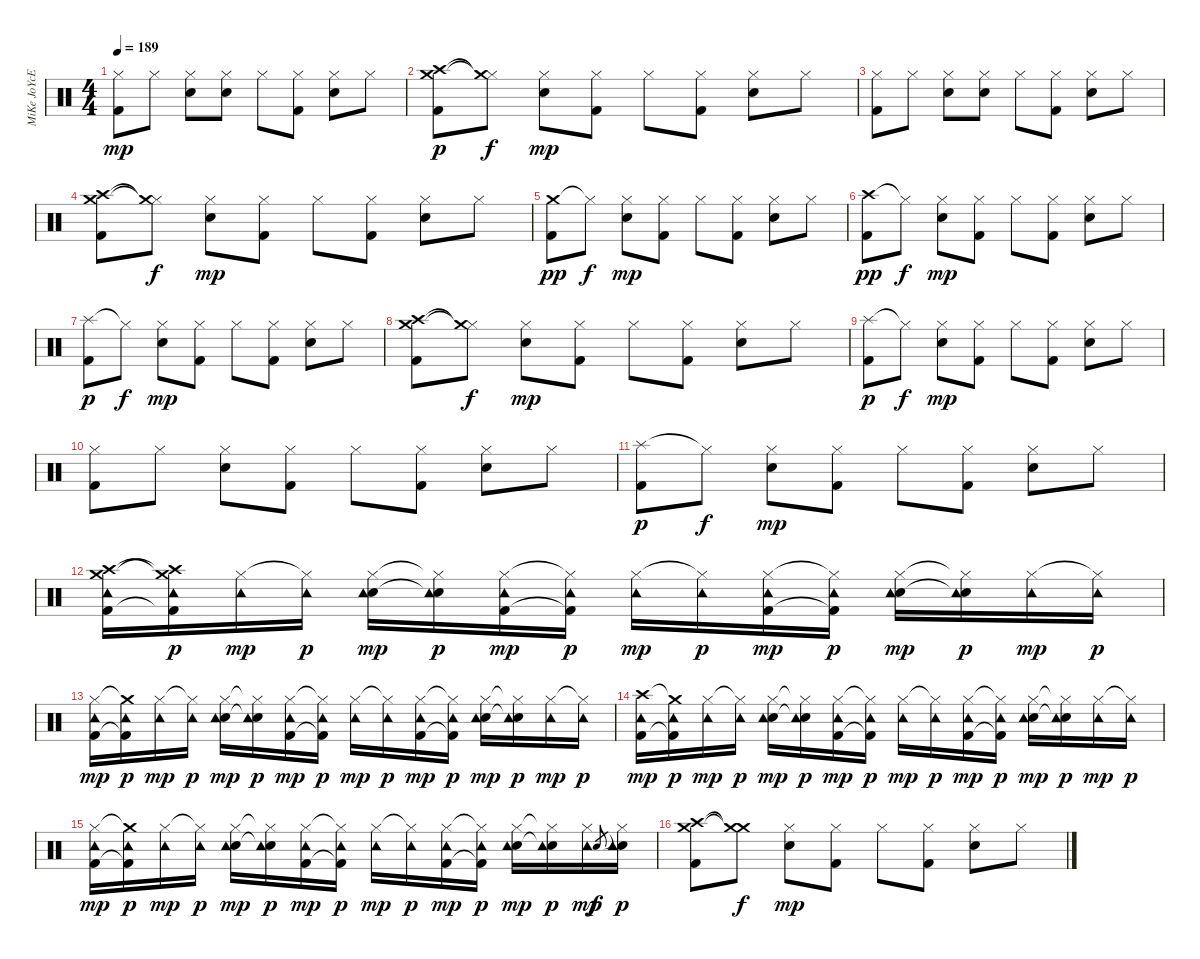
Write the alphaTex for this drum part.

\track ("MiKe JoYcE" "MiKe JoYcE") {instrument percussion}
\staff {score}
\articulation defaults
\ts (4 4)
\tempo 189
\clef neutral
\ks c
("Hi-Hat (closed)" "Kick (hit) 2").8{dy mp} "Hi-Hat (closed)".8 ("Hi-Hat (closed)" "Electric Snare (hit)").8 ("Hi-Hat (closed)" "Electric Snare (hit)").8 "Hi-Hat (closed)".8 ("Hi-Hat (closed)" "Kick (hit) 2").8 ("Hi-Hat (closed)" "Electric Snare (hit)").8 "Hi-Hat (closed)".8 |
("Crash high (hit)" "Crash medium (hit)" "Kick (hit) 2").8{dy p} ("Hi-Hat (closed)"{t} "Crash medium (hit)"{t}).8{dy f} ("Hi-Hat (closed)" "Electric Snare (hit)").8{dy mp} ("Hi-Hat (closed)" "Kick (hit) 2").8 "Hi-Hat (closed)".8 ("Hi-Hat (closed)" "Kick (hit) 2").8 ("Hi-Hat (closed)" "Electric Snare (hit)").8 "Hi-Hat (closed)".8 |
("Hi-Hat (closed)" "Kick (hit) 2").8 "Hi-Hat (closed)".8 ("Hi-Hat (closed)" "Electric Snare (hit)").8 ("Hi-Hat (closed)" "Electric Snare (hit)").8 "Hi-Hat (closed)".8 ("Hi-Hat (closed)" "Kick (hit) 2").8 ("Hi-Hat (closed)" "Electric Snare (hit)").8 "Hi-Hat (closed)".8 |
("Crash high (hit)" "Crash medium (hit)" "Kick (hit) 2").8 ("Hi-Hat (closed)"{t} "Crash medium (hit)"{t}).8{dy f} ("Hi-Hat (closed)" "Electric Snare (hit)").8{dy mp} ("Hi-Hat (closed)" "Kick (hit) 2").8 "Hi-Hat (closed)".8 ("Hi-Hat (closed)" "Kick (hit) 2").8 ("Hi-Hat (closed)" "Electric Snare (hit)").8 "Hi-Hat (closed)".8 |
("Crash medium (hit)" "Kick (hit) 2").8{dy pp} "Hi-Hat (closed)"{t}.8{dy f} ("Hi-Hat (closed)" "Electric Snare (hit)").8{dy mp} ("Hi-Hat (closed)" "Kick (hit) 2").8 "Hi-Hat (closed)".8 ("Hi-Hat (closed)" "Kick (hit) 2").8 ("Hi-Hat (closed)" "Electric Snare (hit)").8 "Hi-Hat (closed)".8 |
("Crash high (hit)" "Kick (hit) 2").8{dy pp} "Hi-Hat (closed)"{t}.8{dy f} ("Hi-Hat (closed)" "Electric Snare (hit)").8{dy mp} ("Hi-Hat (closed)" "Kick (hit) 2").8 "Hi-Hat (closed)".8 ("Hi-Hat (closed)" "Kick (hit) 2").8 ("Hi-Hat (closed)" "Electric Snare (hit)").8 "Hi-Hat (closed)".8 |
("Splash (hit)" "Kick (hit) 2").8{dy p} "Hi-Hat (closed)"{t}.8{dy f} ("Hi-Hat (closed)" "Electric Snare (hit)").8{dy mp} ("Hi-Hat (closed)" "Kick (hit) 2").8 "Hi-Hat (closed)".8 ("Hi-Hat (closed)" "Kick (hit) 2").8 ("Hi-Hat (closed)" "Electric Snare (hit)").8 "Hi-Hat (closed)".8 |
("Crash high (hit)" "Crash medium (hit)" "Kick (hit) 2").8 ("Hi-Hat (closed)"{t} "Crash medium (hit)"{t}).8{dy f} ("Hi-Hat (closed)" "Electric Snare (hit)").8{dy mp} ("Hi-Hat (closed)" "Kick (hit) 2").8 "Hi-Hat (closed)".8 ("Hi-Hat (closed)" "Kick (hit) 2").8 ("Hi-Hat (closed)" "Electric Snare (hit)").8 "Hi-Hat (closed)".8 |
("Splash (hit)" "Kick (hit) 2").8{dy p} "Hi-Hat (closed)"{t}.8{dy f} ("Hi-Hat (closed)" "Electric Snare (hit)").8{dy mp} ("Hi-Hat (closed)" "Kick (hit) 2").8 "Hi-Hat (closed)".8 ("Hi-Hat (closed)" "Kick (hit) 2").8 ("Hi-Hat (closed)" "Electric Snare (hit)").8 "Hi-Hat (closed)".8 |
("Hi-Hat (closed)" "Kick (hit) 2").8 "Hi-Hat (closed)".8 ("Hi-Hat (closed)" "Electric Snare (hit)").8 ("Hi-Hat (closed)" "Kick (hit) 2").8 "Hi-Hat (closed)".8 ("Hi-Hat (closed)" "Kick (hit) 2").8 ("Hi-Hat (closed)" "Electric Snare (hit)").8 "Hi-Hat (closed)".8 |
("Splash (hit)" "Kick (hit) 2").8{dy p} "Hi-Hat (closed)"{t}.8{dy f} ("Hi-Hat (closed)" "Electric Snare (hit)").8{dy mp} ("Hi-Hat (closed)" "Kick (hit) 2").8 "Hi-Hat (closed)".8 ("Hi-Hat (closed)" "Kick (hit) 2").8 ("Hi-Hat (closed)" "Electric Snare (hit)").8 "Hi-Hat (closed)".8 |
("Crash high (hit)" "Crash medium (hit)" "Tambourine (hit)" "Kick (hit) 2").16 ("Crash medium (hit)"{t} "Crash high (hit)"{t} "Tambourine (hit)" "Kick (hit) 2"{t}).16{dy p} ("Hi-Hat (closed)" "Tambourine (hit)").16{dy mp} ("Hi-Hat (closed)"{t} "Tambourine (hit)").16{dy p} ("Hi-Hat (closed)" "Electric Snare (hit)" "Tambourine (hit)").16{dy mp} ("Hi-Hat (closed)"{t} "Electric Snare (hit)"{t} "Tambourine (hit)").16{dy p} ("Hi-Hat (closed)" "Tambourine (hit)" "Kick (hit) 2").16{dy mp} ("Hi-Hat (closed)"{t} "Tambourine (hit)" "Kick (hit) 2"{t}).16{dy p} ("Hi-Hat (closed)" "Tambourine (hit)").16{dy mp} ("Hi-Hat (closed)"{t} "Tambourine (hit)").16{dy p} ("Hi-Hat (closed)" "Tambourine (hit)" "Kick (hit) 2").16{dy mp} ("Hi-Hat (closed)"{t} "Tambourine (hit)" "Kick (hit) 2"{t}).16{dy p} ("Hi-Hat (closed)" "Electric Snare (hit)" "Tambourine (hit)").16{dy mp} ("Hi-Hat (closed)"{t} "Electric Snare (hit)"{t} "Tambourine (hit)").16{dy p} ("Hi-Hat (closed)" "Tambourine (hit)").16{dy mp} ("Hi-Hat (closed)"{t} "Tambourine (hit)").16{dy p} |
("Hi-Hat (closed)" "Tambourine (hit)" "Kick (hit) 2").16{dy mp} ("Crash medium (hit)"{t} "Tambourine (hit)" "Kick (hit) 2"{t}).16{dy p} ("Hi-Hat (closed)" "Tambourine (hit)").16{dy mp} ("Hi-Hat (closed)"{t} "Tambourine (hit)").16{dy p} ("Hi-Hat (closed)" "Electric Snare (hit)" "Tambourine (hit)").16{dy mp} ("Hi-Hat (closed)"{t} "Electric Snare (hit)"{t} "Tambourine (hit)").16{dy p} ("Hi-Hat (closed)" "Tambourine (hit)" "Kick (hit) 2").16{dy mp} ("Hi-Hat (closed)"{t} "Tambourine (hit)" "Kick (hit) 2"{t}).16{dy p} ("Hi-Hat (closed)" "Tambourine (hit)").16{dy mp} ("Hi-Hat (closed)"{t} "Tambourine (hit)").16{dy p} ("Hi-Hat (closed)" "Tambourine (hit)" "Kick (hit) 2").16{dy mp} ("Hi-Hat (closed)"{t} "Tambourine (hit)" "Kick (hit) 2"{t}).16{dy p} ("Hi-Hat (closed)" "Electric Snare (hit)" "Tambourine (hit)").16{dy mp} ("Hi-Hat (closed)"{t} "Electric Snare (hit)"{t} "Tambourine (hit)").16{dy p} ("Hi-Hat (closed)" "Tambourine (hit)").16{dy mp} ("Hi-Hat (closed)"{t} "Tambourine (hit)").16{dy p} |
("Crash high (hit)" "Tambourine (hit)" "Kick (hit) 2").16{dy mp} ("Crash medium (hit)"{t} "Tambourine (hit)" "Kick (hit) 2"{t}).16{dy p} ("Hi-Hat (closed)" "Tambourine (hit)").16{dy mp} ("Hi-Hat (closed)"{t} "Tambourine (hit)").16{dy p} ("Hi-Hat (closed)" "Electric Snare (hit)" "Tambourine (hit)").16{dy mp} ("Hi-Hat (closed)"{t} "Electric Snare (hit)"{t} "Tambourine (hit)").16{dy p} ("Hi-Hat (closed)" "Tambourine (hit)" "Kick (hit) 2").16{dy mp} ("Hi-Hat (closed)"{t} "Tambourine (hit)" "Kick (hit) 2"{t}).16{dy p} ("Hi-Hat (closed)" "Tambourine (hit)").16{dy mp} ("Hi-Hat (closed)"{t} "Tambourine (hit)").16{dy p} ("Hi-Hat (closed)" "Tambourine (hit)" "Kick (hit) 2").16{dy mp} ("Hi-Hat (closed)"{t} "Tambourine (hit)" "Kick (hit) 2"{t}).16{dy p} ("Hi-Hat (closed)" "Electric Snare (hit)" "Tambourine (hit)").16{dy mp} ("Hi-Hat (closed)"{t} "Electric Snare (hit)"{t} "Tambourine (hit)").16{dy p} ("Hi-Hat (closed)" "Tambourine (hit)").16{dy mp} ("Hi-Hat (closed)"{t} "Tambourine (hit)").16{dy p} |
("Hi-Hat (closed)" "Tambourine (hit)" "Kick (hit) 2").16{dy mp} ("Crash medium (hit)"{t} "Tambourine (hit)" "Kick (hit) 2"{t}).16{dy p} ("Hi-Hat (closed)" "Tambourine (hit)").16{dy mp} ("Hi-Hat (closed)"{t} "Tambourine (hit)").16{dy p} ("Hi-Hat (closed)" "Electric Snare (hit)" "Tambourine (hit)").16{dy mp} ("Hi-Hat (closed)"{t} "Electric Snare (hit)"{t} "Tambourine (hit)").16{dy p} ("Hi-Hat (closed)" "Tambourine (hit)" "Kick (hit) 2").16{dy mp} ("Hi-Hat (closed)"{t} "Tambourine (hit)" "Kick (hit) 2"{t}).16{dy p} ("Hi-Hat (closed)" "Tambourine (hit)").16{dy mp} ("Hi-Hat (closed)"{t} "Tambourine (hit)").16{dy p} ("Hi-Hat (closed)" "Tambourine (hit)" "Kick (hit) 2").16{dy mp} ("Hi-Hat (closed)"{t} "Tambourine (hit)" "Kick (hit) 2"{t}).16{dy p} ("Hi-Hat (closed)" "Electric Snare (hit)" "Tambourine (hit)").16{dy mp} ("Hi-Hat (closed)"{t} "Electric Snare (hit)"{t} "Tambourine (hit)").16{dy p} ("Hi-Hat (closed)" "Tambourine (hit)").16{dy mp} "Electric Snare (hit)".8{gr dy f} ("Hi-Hat (closed)"{t} "Electric Snare (hit)" "Tambourine (hit)").16{dy p} |
("Crash high (hit)" "Crash medium (hit)" "Kick (hit) 2").8 ("Crash medium (hit)"{t} "Crash medium (hit)"{t}).8{dy f} ("Hi-Hat (closed)" "Electric Snare (hit)").8{dy mp} ("Hi-Hat (closed)" "Kick (hit) 2").8 "Hi-Hat (closed)".8 ("Hi-Hat (closed)" "Kick (hit) 2").8 ("Hi-Hat (closed)" "Electric Snare (hit)").8 "Hi-Hat (closed)".8
